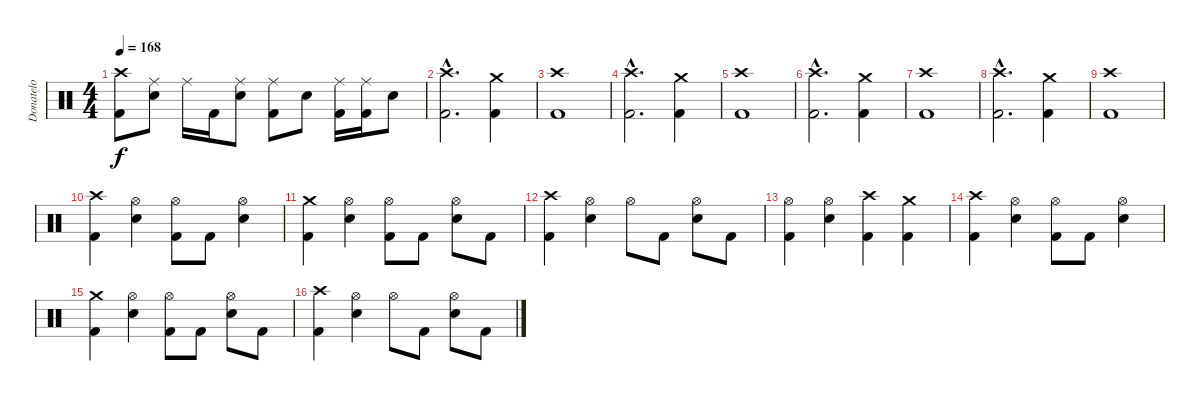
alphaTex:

\track ("Donatelo" "Donatelo") {instrument percussion}
\staff {score}
\articulation defaults
\ts (4 4)
\tempo 168
\clef neutral
\ks c
("Kick (hit) 2" "Crash high (hit)").8{dy f} ("Electric Snare (hit)" "Ride (middle)").8 "Ride (middle)".16 "Kick (hit) 2".16 ("Electric Snare (hit)" "Ride (middle)").8 ("Kick (hit) 2" "Ride (middle)").8 "Electric Snare (hit)".8 ("Kick (hit) 2" "Ride (middle)").16 ("Kick (hit) 2" "Ride (middle)").16 "Electric Snare (hit)".8 |
("Kick (hit) 2"{hac} "Crash high (hit)"{hac}).2{d} ("Kick (hit) 2" "Crash medium (hit)").4 |
("Kick (hit) 2" "Crash high (hit)").1 |
("Kick (hit) 2"{hac} "Crash high (hit)"{hac}).2{d} ("Kick (hit) 2" "Crash medium (hit)").4 |
("Kick (hit) 2" "Crash high (hit)").1 |
("Kick (hit) 2"{hac} "Crash high (hit)"{hac}).2{d} ("Kick (hit) 2" "Crash medium (hit)").4 |
("Kick (hit) 2" "Crash high (hit)").1 |
("Kick (hit) 2"{hac} "Crash high (hit)"{hac}).2{d} ("Kick (hit) 2" "Crash medium (hit)").4 |
("Kick (hit) 2" "Crash high (hit)").1 |
("Kick (hit) 2" "Crash high (hit)").4 ("Electric Snare (hit)" "Hi-Hat (open)").4 ("Kick (hit) 2" "Hi-Hat (open)").8 "Kick (hit) 2".8 ("Electric Snare (hit)" "Hi-Hat (open)").4 |
("Kick (hit) 2" "Crash medium (hit)").4 ("Electric Snare (hit)" "Hi-Hat (open)").4 ("Kick (hit) 2" "Hi-Hat (open)").8 "Kick (hit) 2".8 ("Electric Snare (hit)" "Hi-Hat (open)").8 "Kick (hit) 2".8 |
("Kick (hit) 2" "Crash high (hit)").4 ("Electric Snare (hit)" "Hi-Hat (open)").4 "Hi-Hat (open)".8 "Kick (hit) 2".8 ("Electric Snare (hit)" "Hi-Hat (open)").8 "Kick (hit) 2".8 |
("Kick (hit) 2" "Hi-Hat (open)").4 ("Electric Snare (hit)" "Hi-Hat (open)").4 ("Kick (hit) 2" "Crash high (hit)").4 ("Kick (hit) 2" "Crash medium (hit)").4 |
("Kick (hit) 2" "Crash high (hit)").4 ("Electric Snare (hit)" "Hi-Hat (open)").4 ("Kick (hit) 2" "Hi-Hat (open)").8 "Kick (hit) 2".8 ("Electric Snare (hit)" "Hi-Hat (open)").4 |
("Kick (hit) 2" "Crash medium (hit)").4 ("Electric Snare (hit)" "Hi-Hat (open)").4 ("Kick (hit) 2" "Hi-Hat (open)").8 "Kick (hit) 2".8 ("Electric Snare (hit)" "Hi-Hat (open)").8 "Kick (hit) 2".8 |
("Kick (hit) 2" "Crash high (hit)").4 ("Electric Snare (hit)" "Hi-Hat (open)").4 "Hi-Hat (open)".8 "Kick (hit) 2".8 ("Electric Snare (hit)" "Hi-Hat (open)").8 "Kick (hit) 2".8
